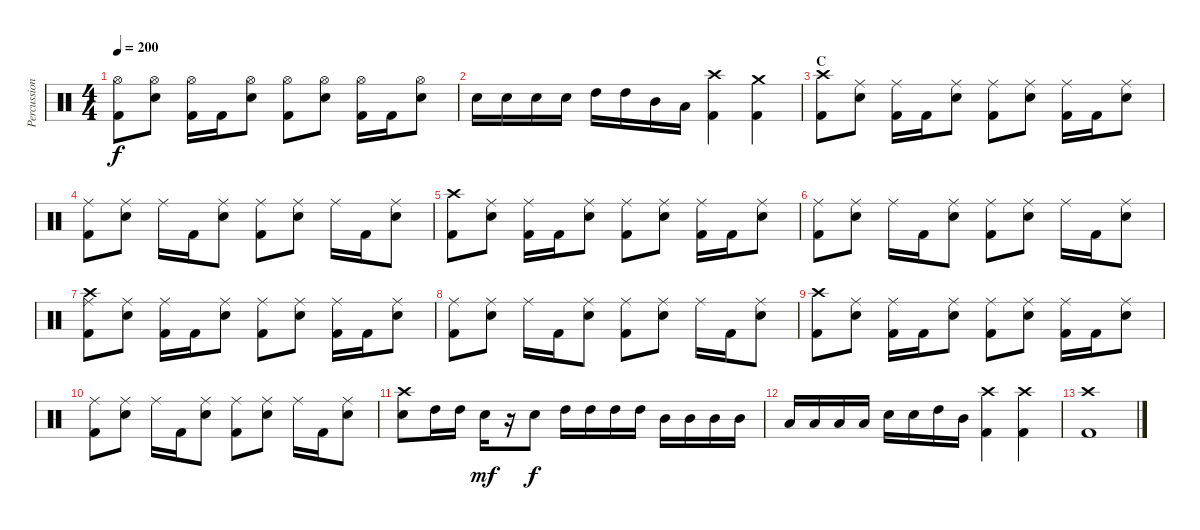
\track ("Percussion" "Percussion") {instrument percussion}
\staff {score}
\articulation defaults
\ts (4 4)
\tempo 200
\clef neutral
\ks c
("Hi-Hat (open)" "Kick (hit) 2").8{dy f} ("Hi-Hat (open)" "Electric Snare (hit)").8 ("Hi-Hat (open)" "Kick (hit) 2").16 "Kick (hit) 2".16 ("Hi-Hat (open)" "Electric Snare (hit)").8 ("Hi-Hat (open)" "Kick (hit) 2").8 ("Hi-Hat (open)" "Electric Snare (hit)").8 ("Hi-Hat (open)" "Kick (hit) 2").16 "Kick (hit) 2".16 ("Hi-Hat (open)" "Electric Snare (hit)").8 |
"Electric Snare (hit)".16 "Electric Snare (hit)".16 "Electric Snare (hit)".16 "Electric Snare (hit)".16 "High Tom (hit)".16 "High Tom (hit)".16 "Mid Tom (hit)".16 "Low Tom (hit)".16 ("Crash high (hit)" "Kick (hit) 2").4 ("Crash medium (hit)" "Kick (hit) 2").4 |
\section ("" "C")
("Crash high (hit)" "Kick (hit) 2").8 ("Ride (middle)" "Electric Snare (hit)").8 ("Ride (middle)" "Kick (hit) 2").16 "Kick (hit) 2".16 ("Ride (middle)" "Electric Snare (hit)").8 ("Ride (middle)" "Kick (hit) 2").8 ("Ride (middle)" "Electric Snare (hit)").8 ("Ride (middle)" "Kick (hit) 2").16 "Kick (hit) 2".16 ("Ride (middle)" "Electric Snare (hit)").8 |
("Ride (middle)" "Kick (hit) 2").8 ("Ride (middle)" "Electric Snare (hit)").8 "Ride (middle)".16 "Kick (hit) 2".16 ("Ride (middle)" "Electric Snare (hit)").8 ("Ride (middle)" "Kick (hit) 2").8 ("Ride (middle)" "Electric Snare (hit)").8 "Ride (middle)".16 "Kick (hit) 2".16 ("Ride (middle)" "Electric Snare (hit)").8 |
("Crash high (hit)" "Kick (hit) 2").8 ("Ride (middle)" "Electric Snare (hit)").8 ("Ride (middle)" "Kick (hit) 2").16 "Kick (hit) 2".16 ("Ride (middle)" "Electric Snare (hit)").8 ("Ride (middle)" "Kick (hit) 2").8 ("Ride (middle)" "Electric Snare (hit)").8 ("Ride (middle)" "Kick (hit) 2").16 "Kick (hit) 2".16 ("Ride (middle)" "Electric Snare (hit)").8 |
("Ride (middle)" "Kick (hit) 2").8 ("Ride (middle)" "Electric Snare (hit)").8 "Ride (middle)".16 "Kick (hit) 2".16 ("Ride (middle)" "Electric Snare (hit)").8 ("Ride (middle)" "Kick (hit) 2").8 ("Ride (middle)" "Electric Snare (hit)").8 "Ride (middle)".16 "Kick (hit) 2".16 ("Ride (middle)" "Electric Snare (hit)").8 |
("Crash high (hit)" "Ride (middle)" "Kick (hit) 2").8 ("Ride (middle)" "Electric Snare (hit)").8 ("Ride (middle)" "Kick (hit) 2").16 "Kick (hit) 2".16 ("Ride (middle)" "Electric Snare (hit)").8 ("Ride (middle)" "Kick (hit) 2").8 ("Ride (middle)" "Electric Snare (hit)").8 ("Ride (middle)" "Kick (hit) 2").16 "Kick (hit) 2".16 ("Ride (middle)" "Electric Snare (hit)").8 |
("Ride (middle)" "Kick (hit) 2").8 ("Ride (middle)" "Electric Snare (hit)").8 "Ride (middle)".16 "Kick (hit) 2".16 ("Ride (middle)" "Electric Snare (hit)").8 ("Ride (middle)" "Kick (hit) 2").8 ("Ride (middle)" "Electric Snare (hit)").8 "Ride (middle)".16 "Kick (hit) 2".16 ("Ride (middle)" "Electric Snare (hit)").8 |
("Crash high (hit)" "Kick (hit) 2").8 ("Ride (middle)" "Electric Snare (hit)").8 ("Ride (middle)" "Kick (hit) 2").16 "Kick (hit) 2".16 ("Ride (middle)" "Electric Snare (hit)").8 ("Ride (middle)" "Kick (hit) 2").8 ("Ride (middle)" "Electric Snare (hit)").8 ("Ride (middle)" "Kick (hit) 2").16 "Kick (hit) 2".16 ("Ride (middle)" "Electric Snare (hit)").8 |
("Ride (middle)" "Kick (hit) 2").8 ("Ride (middle)" "Electric Snare (hit)").8 "Ride (middle)".16 "Kick (hit) 2".16 ("Ride (middle)" "Electric Snare (hit)").8 ("Ride (middle)" "Kick (hit) 2").8 ("Ride (middle)" "Electric Snare (hit)").8 "Ride (middle)".16 "Kick (hit) 2".16 ("Ride (middle)" "Electric Snare (hit)").8 |
("Crash high (hit)" "Electric Snare (hit)").8 "High Tom (hit)".16 "High Tom (hit)".16 "Electric Snare (hit)".16{dy mf} r.16 "Electric Snare (hit)".8{dy f} "High Tom (hit)".16 "High Tom (hit)".16 "High Tom (hit)".16 "High Tom (hit)".16 "Mid Tom (hit)".16 "Mid Tom (hit)".16 "Mid Tom (hit)".16 "Mid Tom (hit)".16 |
"Low Tom (hit)".16 "Low Tom (hit)".16 "Low Tom (hit)".16 "Low Tom (hit)".16 "Electric Snare (hit)".16 "Electric Snare (hit)".16 "High Tom (hit)".16 "Mid Tom (hit)".16 ("Crash high (hit)" "Kick (hit) 2").4 ("Crash high (hit)" "Kick (hit) 2").4 |
("Crash high (hit)" "Kick (hit) 2").1
